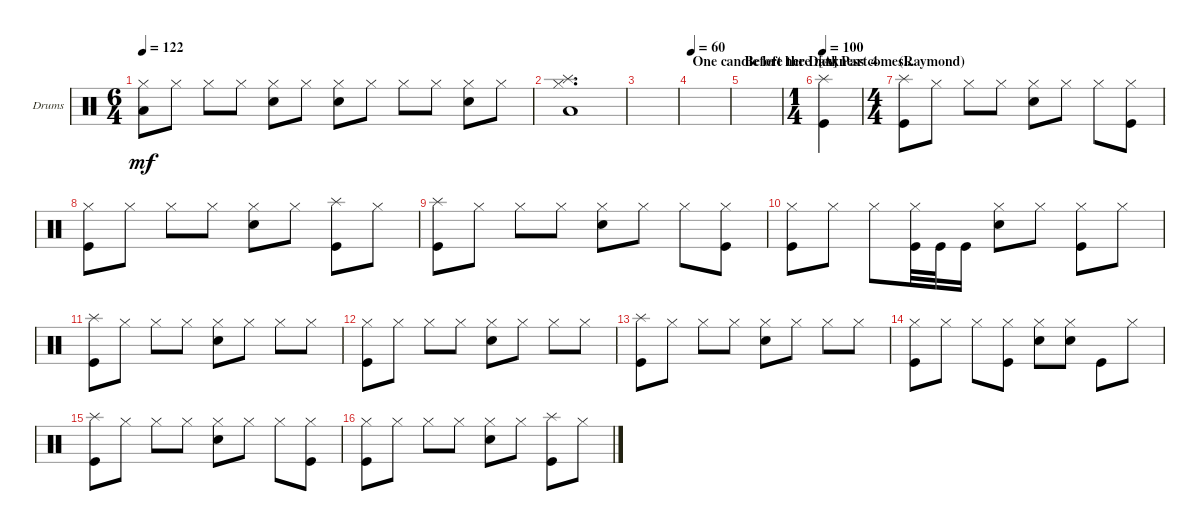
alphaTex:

\bracketExtendMode groupsimilarinstruments
\firstSystemTrackNameOrientation horizontal
\otherSystemsTrackNameOrientation horizontal
\track ("Drumkit" "Drums") {instrument percussion}
\staff {score}
\articulation defaults
\ts (6 4)
\tempo 122
\clef neutral
\ks c
("Hi-Hat (closed)" "Low Tom (hit)").8{dy mf} "Hi-Hat (closed)".8 "Hi-Hat (closed)".8 "Hi-Hat (closed)".8 ("Snare (hit) 2" "Hi-Hat (closed)").8 "Hi-Hat (closed)".8 ("Hi-Hat (closed)" "Snare (hit) 2").8 "Hi-Hat (closed)".8 "Hi-Hat (closed)".8 "Hi-Hat (closed)".8 ("Hi-Hat (closed)" "Snare (hit) 2").8 "Hi-Hat (closed)".8 |
("Hi-Hat (closed)" "Splash (hit)" "Low Tom (hit)").1{d} |
|
\section ("" "One candle left here now")
\tempo 60
|
\section ("" "Before the Darkness comes...")
|
\ts (1 4)
\section ("A" "Part 4")
\tempo 100
("Splash (hit)" "Kick (hit)").4 |
\ts (4 4)
\section ("" "(Raymond)")
("Splash (hit)" "Kick (hit)").8 "Hi-Hat (closed)".8 "Hi-Hat (closed)".8 "Hi-Hat (closed)".8 ("Snare (hit) 2" "Hi-Hat (closed)").8 "Hi-Hat (closed)".8 "Hi-Hat (closed)".8 ("Hi-Hat (closed)" "Kick (hit)").8 |
("Kick (hit)" "Hi-Hat (closed)").8 "Hi-Hat (closed)".8 "Hi-Hat (closed)".8 "Hi-Hat (closed)".8 ("Snare (hit) 2" "Hi-Hat (closed)").8 "Hi-Hat (closed)".8 ("Splash (hit)" "Kick (hit)").8 "Hi-Hat (closed)".8 |
("Splash (hit)" "Kick (hit)").8 "Hi-Hat (closed)".8 "Hi-Hat (closed)".8 "Hi-Hat (closed)".8 ("Snare (hit) 2" "Hi-Hat (closed)").8 "Hi-Hat (closed)".8 "Hi-Hat (closed)".8 ("Hi-Hat (closed)" "Kick (hit)").8 |
("Kick (hit)" "Hi-Hat (closed)").8 "Hi-Hat (closed)".8 "Hi-Hat (closed)".8 ("Kick (hit)" "Hi-Hat (closed)").32 "Kick (hit)".32 "Kick (hit)".16 ("Snare (hit) 2" "Hi-Hat (closed)").8 "Hi-Hat (closed)".8 ("Kick (hit)" "Hi-Hat (closed)").8 "Hi-Hat (closed)".8 |
("Splash (hit)" "Kick (hit)").8 "Hi-Hat (closed)".8 "Hi-Hat (closed)".8 "Hi-Hat (closed)".8 ("Snare (hit) 2" "Hi-Hat (closed)").8 "Hi-Hat (closed)".8 "Hi-Hat (closed)".8 "Hi-Hat (closed)".8 |
("Kick (hit)" "Hi-Hat (closed)").8 "Hi-Hat (closed)".8 "Hi-Hat (closed)".8 "Hi-Hat (closed)".8 ("Snare (hit) 2" "Hi-Hat (closed)").8 "Hi-Hat (closed)".8 "Hi-Hat (closed)".8 "Hi-Hat (closed)".8 |
("Splash (hit)" "Kick (hit)").8 "Hi-Hat (closed)".8 "Hi-Hat (closed)".8 "Hi-Hat (closed)".8 ("Snare (hit) 2" "Hi-Hat (closed)").8 "Hi-Hat (closed)".8 "Hi-Hat (closed)".8 "Hi-Hat (closed)".8 |
("Kick (hit)" "Hi-Hat (closed)").8 "Hi-Hat (closed)".8 "Hi-Hat (closed)".8 ("Kick (hit)" "Hi-Hat (closed)").8 ("Snare (hit) 2" "Hi-Hat (closed)").8 ("Snare (hit) 2" "Hi-Hat (closed)").8 "Kick (hit)".8 "Hi-Hat (closed)".8 |
("Splash (hit)" "Kick (hit)").8 "Hi-Hat (closed)".8 "Hi-Hat (closed)".8 "Hi-Hat (closed)".8 ("Snare (hit) 2" "Hi-Hat (closed)").8 "Hi-Hat (closed)".8 "Hi-Hat (closed)".8 ("Hi-Hat (closed)" "Kick (hit)").8 |
("Kick (hit)" "Hi-Hat (closed)").8 "Hi-Hat (closed)".8 "Hi-Hat (closed)".8 "Hi-Hat (closed)".8 ("Snare (hit) 2" "Hi-Hat (closed)").8 "Hi-Hat (closed)".8 ("Splash (hit)" "Kick (hit)").8 "Hi-Hat (closed)".8
